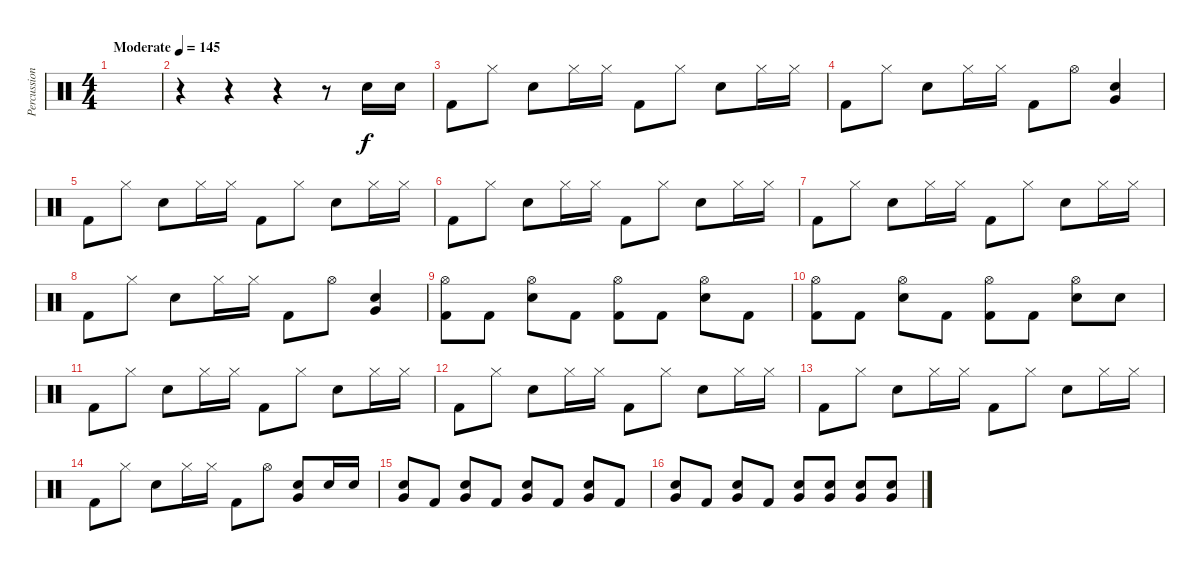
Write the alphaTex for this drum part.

\track ("Percussion" "Percussion") {instrument percussion}
\staff {score}
\articulation defaults
\ts (4 4)
\tempo (145 "Moderate")
\clef neutral
\ks c
|
r.4 r.4 r.4 r.8 "Electric Snare (hit)".16 "Electric Snare (hit)".16 |
"Kick (hit) 2".8 "Hi-Hat (closed)".8 "Electric Snare (hit)".8 "Hi-Hat (closed)".16 "Hi-Hat (closed)".16 "Kick (hit) 2".8 "Hi-Hat (closed)".8 "Electric Snare (hit)".8 "Hi-Hat (closed)".16 "Hi-Hat (closed)".16 |
"Kick (hit) 2".8 "Hi-Hat (closed)".8 "Electric Snare (hit)".8 "Hi-Hat (closed)".16 "Hi-Hat (closed)".16 "Kick (hit) 2".8 "Hi-Hat (open)".8 ("Electric Snare (hit)" "Very Low Tom (hit)").4 |
"Kick (hit) 2".8 "Hi-Hat (closed)".8 "Electric Snare (hit)".8 "Hi-Hat (closed)".16 "Hi-Hat (closed)".16 "Kick (hit) 2".8 "Hi-Hat (closed)".8 "Electric Snare (hit)".8 "Hi-Hat (closed)".16 "Hi-Hat (closed)".16 |
"Kick (hit) 2".8 "Hi-Hat (closed)".8 "Electric Snare (hit)".8 "Hi-Hat (closed)".16 "Hi-Hat (closed)".16 "Kick (hit) 2".8 "Hi-Hat (closed)".8 "Electric Snare (hit)".8 "Hi-Hat (closed)".16 "Hi-Hat (closed)".16 |
"Kick (hit) 2".8 "Hi-Hat (closed)".8 "Electric Snare (hit)".8 "Hi-Hat (closed)".16 "Hi-Hat (closed)".16 "Kick (hit) 2".8 "Hi-Hat (closed)".8 "Electric Snare (hit)".8 "Hi-Hat (closed)".16 "Hi-Hat (closed)".16 |
"Kick (hit) 2".8 "Hi-Hat (closed)".8 "Electric Snare (hit)".8 "Hi-Hat (closed)".16 "Hi-Hat (closed)".16 "Kick (hit) 2".8 "Hi-Hat (open)".8 ("Electric Snare (hit)" "Very Low Tom (hit)").4 |
("Hi-Hat (open)" "Kick (hit) 2").8 "Kick (hit) 2".8 ("Hi-Hat (open)" "Electric Snare (hit)").8 "Kick (hit) 2".8 ("Hi-Hat (open)" "Kick (hit) 2").8 "Kick (hit) 2".8 ("Hi-Hat (open)" "Electric Snare (hit)").8 "Kick (hit) 2".8 |
("Hi-Hat (open)" "Kick (hit) 2").8 "Kick (hit) 2".8 ("Hi-Hat (open)" "Electric Snare (hit)").8 "Kick (hit) 2".8 ("Hi-Hat (open)" "Kick (hit) 2").8 "Kick (hit) 2".8 ("Hi-Hat (open)" "Electric Snare (hit)").8 "Electric Snare (hit)".8 |
"Kick (hit) 2".8 "Hi-Hat (closed)".8 "Electric Snare (hit)".8 "Hi-Hat (closed)".16 "Hi-Hat (closed)".16 "Kick (hit) 2".8 "Hi-Hat (closed)".8 "Electric Snare (hit)".8 "Hi-Hat (closed)".16 "Hi-Hat (closed)".16 |
"Kick (hit) 2".8 "Hi-Hat (closed)".8 "Electric Snare (hit)".8 "Hi-Hat (closed)".16 "Hi-Hat (closed)".16 "Kick (hit) 2".8 "Hi-Hat (closed)".8 "Electric Snare (hit)".8 "Hi-Hat (closed)".16 "Hi-Hat (closed)".16 |
"Kick (hit) 2".8 "Hi-Hat (closed)".8 "Electric Snare (hit)".8 "Hi-Hat (closed)".16 "Hi-Hat (closed)".16 "Kick (hit) 2".8 "Hi-Hat (closed)".8 "Electric Snare (hit)".8 "Hi-Hat (closed)".16 "Hi-Hat (closed)".16 |
"Kick (hit) 2".8 "Hi-Hat (closed)".8 "Electric Snare (hit)".8 "Hi-Hat (closed)".16 "Hi-Hat (closed)".16 "Kick (hit) 2".8 "Hi-Hat (open)".8 ("Electric Snare (hit)" "Very Low Tom (hit)").8 "Electric Snare (hit)".16 "Electric Snare (hit)".16 |
("Electric Snare (hit)" "Very Low Tom (hit)").8 "Kick (hit) 2".8 ("Electric Snare (hit)" "Very Low Tom (hit)").8 "Kick (hit) 2".8 ("Electric Snare (hit)" "Very Low Tom (hit)").8 "Kick (hit) 2".8 ("Electric Snare (hit)" "Very Low Tom (hit)").8 "Kick (hit) 2".8 |
("Electric Snare (hit)" "Very Low Tom (hit)").8 "Kick (hit) 2".8 ("Electric Snare (hit)" "Very Low Tom (hit)").8 "Kick (hit) 2".8 ("Electric Snare (hit)" "Very Low Tom (hit)").8 ("Electric Snare (hit)" "Very Low Tom (hit)").8 ("Electric Snare (hit)" "Very Low Tom (hit)").8 ("Electric Snare (hit)" "Very Low Tom (hit)").8
